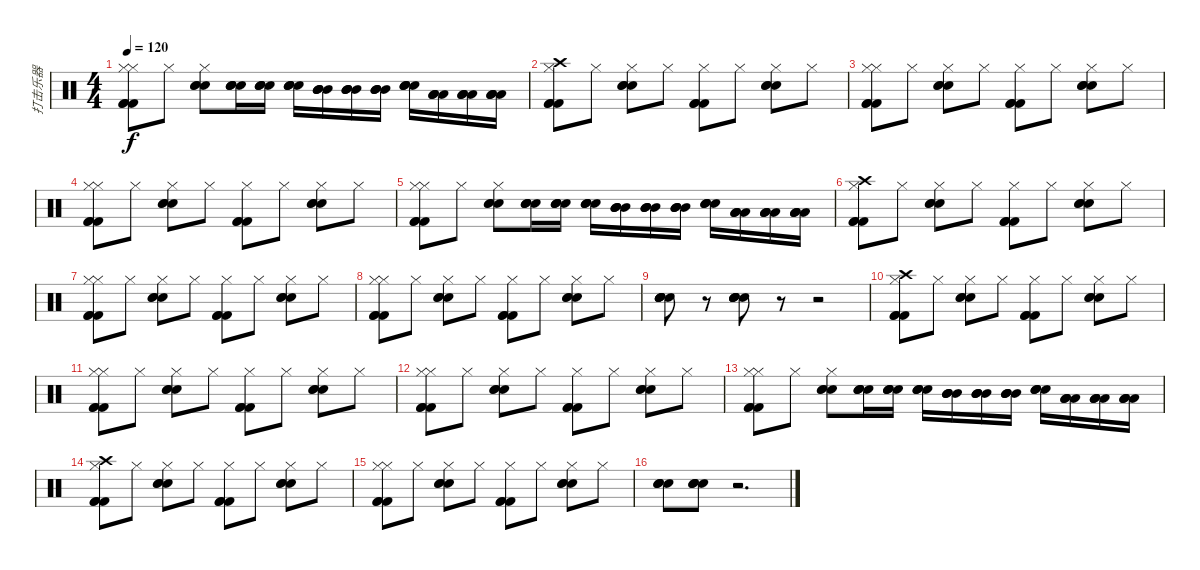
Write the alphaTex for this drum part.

\track ("打击乐器" "打击乐器") {instrument percussion}
\staff {score}
\articulation defaults
\ts (4 4)
\tempo 120
\clef neutral
\ks c
("Kick (hit) 2" "Kick (hit) 2" "Kick (hit) 2" "Hi-Hat (closed)" "Hi-Hat (closed)").8{dy f} "Hi-Hat (closed)".8 ("Snare (hit) 2" "Snare (hit) 2" "Snare (hit) 2" "Hi-Hat (closed)").8 ("Snare (hit) 2" "Snare (hit) 2" "Snare (hit) 2" "Snare (hit) 2").16 ("Snare (hit) 2" "Snare (hit) 2" "Snare (hit) 2" "Snare (hit) 2").16 ("Snare (hit) 2" "Snare (hit) 2" "Snare (hit) 2" "Snare (hit) 2").16 ("Mid Tom (hit)" "Mid Tom (hit)" "Mid Tom (hit)" "Mid Tom (hit)").16 ("Mid Tom (hit)" "Mid Tom (hit)" "Mid Tom (hit)" "Mid Tom (hit)").16 ("Mid Tom (hit)" "Mid Tom (hit)" "Mid Tom (hit)" "Mid Tom (hit)").16 ("Snare (hit) 2" "Snare (hit) 2" "Snare (hit) 2" "Snare (hit) 2").16 ("Low Tom (hit)" "Low Tom (hit)" "Low Tom (hit)" "Low Tom (hit)").16 ("Low Tom (hit)" "Low Tom (hit)" "Low Tom (hit)" "Low Tom (hit)").16 ("Low Tom (hit)" "Low Tom (hit)" "Low Tom (hit)" "Low Tom (hit)").16 |
("Kick (hit) 2" "Kick (hit) 2" "Kick (hit) 2" "Hi-Hat (closed)" "Crash high (hit)").8 "Hi-Hat (closed)".8 ("Snare (hit) 2" "Snare (hit) 2" "Snare (hit) 2" "Hi-Hat (closed)").8 "Hi-Hat (closed)".8 ("Kick (hit) 2" "Kick (hit) 2" "Kick (hit) 2" "Hi-Hat (closed)").8 "Hi-Hat (closed)".8 ("Snare (hit) 2" "Snare (hit) 2" "Snare (hit) 2" "Hi-Hat (closed)").8 "Hi-Hat (closed)".8 |
("Kick (hit) 2" "Kick (hit) 2" "Kick (hit) 2" "Hi-Hat (closed)" "Hi-Hat (closed)").8 "Hi-Hat (closed)".8 ("Snare (hit) 2" "Snare (hit) 2" "Snare (hit) 2" "Hi-Hat (closed)").8 "Hi-Hat (closed)".8 ("Kick (hit) 2" "Kick (hit) 2" "Kick (hit) 2" "Hi-Hat (closed)").8 "Hi-Hat (closed)".8 ("Snare (hit) 2" "Snare (hit) 2" "Snare (hit) 2" "Hi-Hat (closed)").8 "Hi-Hat (closed)".8 |
("Kick (hit) 2" "Kick (hit) 2" "Kick (hit) 2" "Hi-Hat (closed)" "Hi-Hat (closed)").8 "Hi-Hat (closed)".8 ("Snare (hit) 2" "Snare (hit) 2" "Snare (hit) 2" "Hi-Hat (closed)").8 "Hi-Hat (closed)".8 ("Kick (hit) 2" "Kick (hit) 2" "Kick (hit) 2" "Hi-Hat (closed)").8 "Hi-Hat (closed)".8 ("Snare (hit) 2" "Snare (hit) 2" "Snare (hit) 2" "Hi-Hat (closed)").8 "Hi-Hat (closed)".8 |
("Kick (hit) 2" "Kick (hit) 2" "Kick (hit) 2" "Hi-Hat (closed)" "Hi-Hat (closed)").8 "Hi-Hat (closed)".8 ("Snare (hit) 2" "Snare (hit) 2" "Snare (hit) 2" "Hi-Hat (closed)").8 ("Snare (hit) 2" "Snare (hit) 2" "Snare (hit) 2" "Snare (hit) 2").16 ("Snare (hit) 2" "Snare (hit) 2" "Snare (hit) 2" "Snare (hit) 2").16 ("Snare (hit) 2" "Snare (hit) 2" "Snare (hit) 2" "Snare (hit) 2").16 ("Mid Tom (hit)" "Mid Tom (hit)" "Mid Tom (hit)" "Mid Tom (hit)").16 ("Mid Tom (hit)" "Mid Tom (hit)" "Mid Tom (hit)" "Mid Tom (hit)").16 ("Mid Tom (hit)" "Mid Tom (hit)" "Mid Tom (hit)" "Mid Tom (hit)").16 ("Snare (hit) 2" "Snare (hit) 2" "Snare (hit) 2" "Snare (hit) 2").16 ("Low Tom (hit)" "Low Tom (hit)" "Low Tom (hit)" "Low Tom (hit)").16 ("Low Tom (hit)" "Low Tom (hit)" "Low Tom (hit)" "Low Tom (hit)").16 ("Low Tom (hit)" "Low Tom (hit)" "Low Tom (hit)" "Low Tom (hit)").16 |
("Kick (hit) 2" "Kick (hit) 2" "Kick (hit) 2" "Hi-Hat (closed)" "Crash high (hit)").8 "Hi-Hat (closed)".8 ("Snare (hit) 2" "Snare (hit) 2" "Snare (hit) 2" "Hi-Hat (closed)").8 "Hi-Hat (closed)".8 ("Kick (hit) 2" "Kick (hit) 2" "Kick (hit) 2" "Hi-Hat (closed)").8 "Hi-Hat (closed)".8 ("Snare (hit) 2" "Snare (hit) 2" "Snare (hit) 2" "Hi-Hat (closed)").8 "Hi-Hat (closed)".8 |
("Kick (hit) 2" "Kick (hit) 2" "Kick (hit) 2" "Hi-Hat (closed)" "Hi-Hat (closed)").8 "Hi-Hat (closed)".8 ("Snare (hit) 2" "Snare (hit) 2" "Snare (hit) 2" "Hi-Hat (closed)").8 "Hi-Hat (closed)".8 ("Kick (hit) 2" "Kick (hit) 2" "Kick (hit) 2" "Hi-Hat (closed)").8 "Hi-Hat (closed)".8 ("Snare (hit) 2" "Snare (hit) 2" "Snare (hit) 2" "Hi-Hat (closed)").8 "Hi-Hat (closed)".8 |
("Kick (hit) 2" "Kick (hit) 2" "Kick (hit) 2" "Hi-Hat (closed)" "Hi-Hat (closed)").8 "Hi-Hat (closed)".8 ("Snare (hit) 2" "Snare (hit) 2" "Snare (hit) 2" "Hi-Hat (closed)").8 "Hi-Hat (closed)".8 ("Kick (hit) 2" "Kick (hit) 2" "Kick (hit) 2" "Hi-Hat (closed)").8 "Hi-Hat (closed)".8 ("Snare (hit) 2" "Snare (hit) 2" "Snare (hit) 2" "Hi-Hat (closed)").8 "Hi-Hat (closed)".8 |
("Snare (hit) 2" "Snare (hit) 2" "Snare (hit) 2" "Snare (hit) 2" "Snare (hit) 2").8 r.8 ("Snare (hit) 2" "Snare (hit) 2" "Snare (hit) 2" "Snare (hit) 2" "Snare (hit) 2").8 r.8 r.2 |
("Kick (hit) 2" "Kick (hit) 2" "Kick (hit) 2" "Hi-Hat (closed)" "Crash high (hit)").8 "Hi-Hat (closed)".8 ("Snare (hit) 2" "Snare (hit) 2" "Snare (hit) 2" "Hi-Hat (closed)").8 "Hi-Hat (closed)".8 ("Kick (hit) 2" "Kick (hit) 2" "Kick (hit) 2" "Hi-Hat (closed)").8 "Hi-Hat (closed)".8 ("Snare (hit) 2" "Snare (hit) 2" "Snare (hit) 2" "Hi-Hat (closed)").8 "Hi-Hat (closed)".8 |
("Kick (hit) 2" "Kick (hit) 2" "Kick (hit) 2" "Hi-Hat (closed)" "Hi-Hat (closed)").8 "Hi-Hat (closed)".8 ("Snare (hit) 2" "Snare (hit) 2" "Snare (hit) 2" "Hi-Hat (closed)").8 "Hi-Hat (closed)".8 ("Kick (hit) 2" "Kick (hit) 2" "Kick (hit) 2" "Hi-Hat (closed)").8 "Hi-Hat (closed)".8 ("Snare (hit) 2" "Snare (hit) 2" "Snare (hit) 2" "Hi-Hat (closed)").8 "Hi-Hat (closed)".8 |
("Kick (hit) 2" "Kick (hit) 2" "Kick (hit) 2" "Hi-Hat (closed)" "Hi-Hat (closed)").8 "Hi-Hat (closed)".8 ("Snare (hit) 2" "Snare (hit) 2" "Snare (hit) 2" "Hi-Hat (closed)").8 "Hi-Hat (closed)".8 ("Kick (hit) 2" "Kick (hit) 2" "Kick (hit) 2" "Hi-Hat (closed)").8 "Hi-Hat (closed)".8 ("Snare (hit) 2" "Snare (hit) 2" "Snare (hit) 2" "Hi-Hat (closed)").8 "Hi-Hat (closed)".8 |
("Kick (hit) 2" "Kick (hit) 2" "Kick (hit) 2" "Hi-Hat (closed)" "Hi-Hat (closed)").8 "Hi-Hat (closed)".8 ("Snare (hit) 2" "Snare (hit) 2" "Snare (hit) 2" "Hi-Hat (closed)").8 ("Snare (hit) 2" "Snare (hit) 2" "Snare (hit) 2" "Snare (hit) 2").16 ("Snare (hit) 2" "Snare (hit) 2" "Snare (hit) 2" "Snare (hit) 2").16 ("Snare (hit) 2" "Snare (hit) 2" "Snare (hit) 2" "Snare (hit) 2").16 ("Mid Tom (hit)" "Mid Tom (hit)" "Mid Tom (hit)" "Mid Tom (hit)").16 ("Mid Tom (hit)" "Mid Tom (hit)" "Mid Tom (hit)" "Mid Tom (hit)").16 ("Mid Tom (hit)" "Mid Tom (hit)" "Mid Tom (hit)" "Mid Tom (hit)").16 ("Snare (hit) 2" "Snare (hit) 2" "Snare (hit) 2" "Snare (hit) 2").16 ("Low Tom (hit)" "Low Tom (hit)" "Low Tom (hit)" "Low Tom (hit)").16 ("Low Tom (hit)" "Low Tom (hit)" "Low Tom (hit)" "Low Tom (hit)").16 ("Low Tom (hit)" "Low Tom (hit)" "Low Tom (hit)" "Low Tom (hit)").16 |
("Kick (hit) 2" "Kick (hit) 2" "Kick (hit) 2" "Hi-Hat (closed)" "Crash high (hit)").8 "Hi-Hat (closed)".8 ("Snare (hit) 2" "Snare (hit) 2" "Snare (hit) 2" "Hi-Hat (closed)").8 "Hi-Hat (closed)".8 ("Kick (hit) 2" "Kick (hit) 2" "Kick (hit) 2" "Hi-Hat (closed)").8 "Hi-Hat (closed)".8 ("Snare (hit) 2" "Snare (hit) 2" "Snare (hit) 2" "Hi-Hat (closed)").8 "Hi-Hat (closed)".8 |
("Kick (hit) 2" "Kick (hit) 2" "Kick (hit) 2" "Hi-Hat (closed)" "Hi-Hat (closed)").8 "Hi-Hat (closed)".8 ("Snare (hit) 2" "Snare (hit) 2" "Snare (hit) 2" "Hi-Hat (closed)").8 "Hi-Hat (closed)".8 ("Kick (hit) 2" "Kick (hit) 2" "Kick (hit) 2" "Hi-Hat (closed)").8 "Hi-Hat (closed)".8 ("Snare (hit) 2" "Snare (hit) 2" "Snare (hit) 2" "Hi-Hat (closed)").8 "Hi-Hat (closed)".8 |
("Snare (hit) 2" "Snare (hit) 2" "Snare (hit) 2" "Snare (hit) 2").8 ("Snare (hit) 2" "Snare (hit) 2" "Snare (hit) 2" "Snare (hit) 2").8 r.2{d}
